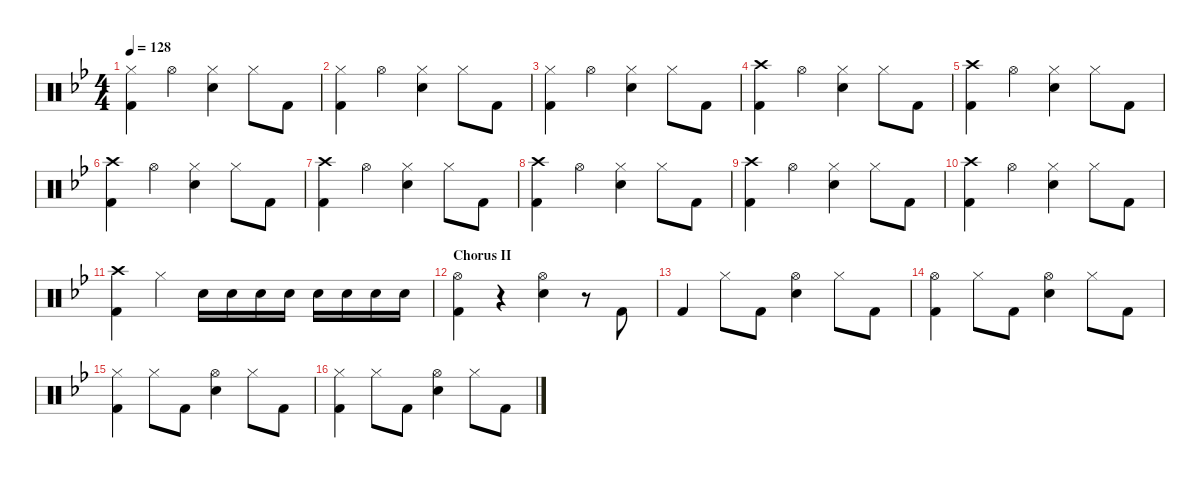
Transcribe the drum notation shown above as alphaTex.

\defaultSystemsLayout 4
\hideDynamics
\bracketExtendMode nobrackets
\singleTrackTrackNamePolicy hidden
\multiTrackTrackNamePolicy hidden
\firstSystemTrackNameMode fullname
\firstSystemTrackNameOrientation horizontal
\otherSystemsTrackNameOrientation horizontal
\track ("Drums" "drm.") {instrument percussion}
\staff {score}
\articulation defaults
\ts (4 4)
\tempo 128
\clef neutral
\ks bb
("Hi-Hat (closed)"{acc forcenatural} "Kick (hit) 2"{acc forcenatural}).4{dy f beam Down} "Hi-Hat (open)"{acc forcenatural}.4{beam Down} ("Hi-Hat (closed)"{acc forcenatural} "Snare (hit) 2"{acc forcenatural}).4{beam Down} "Hi-Hat (closed)"{acc forcenatural}.8{beam Down} "Kick (hit) 2"{acc forcenatural}.8{beam Down} |
("Hi-Hat (closed)"{acc forcenatural} "Kick (hit) 2"{acc forcenatural}).4{beam Down} "Hi-Hat (open)"{acc forcenatural}.4{beam Down} ("Hi-Hat (closed)"{acc forcenatural} "Snare (hit) 2"{acc forcenatural}).4{beam Down} "Hi-Hat (closed)"{acc forcenatural}.8{beam Down} "Kick (hit) 2"{acc forcenatural}.8{beam Down} |
("Hi-Hat (closed)"{acc forcenatural} "Kick (hit) 2"{acc forcenatural}).4{beam Down} "Hi-Hat (open)"{acc forcenatural}.4{beam Down} ("Hi-Hat (closed)"{acc forcenatural} "Snare (hit) 2"{acc forcenatural}).4{beam Down} "Hi-Hat (closed)"{acc forcenatural}.8{beam Down} "Kick (hit) 2"{acc forcenatural}.8{beam Down} |
("Crash high (hit)"{acc forcenatural} "Kick (hit) 2"{acc forcenatural}).4{beam Down} "Hi-Hat (open)"{acc forcenatural}.4{beam Down} ("Hi-Hat (closed)"{acc forcenatural} "Snare (hit) 2"{acc forcenatural}).4{beam Down} "Hi-Hat (closed)"{acc forcenatural}.8{beam Down} "Kick (hit) 2"{acc forcenatural}.8{beam Down} |
("Crash high (hit)"{acc forcenatural} "Kick (hit) 2"{acc forcenatural}).4{beam Down} "Hi-Hat (open)"{acc forcenatural}.4{beam Down} ("Hi-Hat (closed)"{acc forcenatural} "Snare (hit) 2"{acc forcenatural}).4{beam Down} "Hi-Hat (closed)"{acc forcenatural}.8{beam Down} "Kick (hit) 2"{acc forcenatural}.8{beam Down} |
("Crash high (hit)"{acc forcenatural} "Kick (hit) 2"{acc forcenatural}).4{beam Down} "Hi-Hat (open)"{acc forcenatural}.4{beam Down} ("Hi-Hat (closed)"{acc forcenatural} "Snare (hit) 2"{acc forcenatural}).4{beam Down} "Hi-Hat (closed)"{acc forcenatural}.8{beam Down} "Kick (hit) 2"{acc forcenatural}.8{beam Down} |
("Crash high (hit)"{acc forcenatural} "Kick (hit) 2"{acc forcenatural}).4{beam Down} "Hi-Hat (open)"{acc forcenatural}.4{beam Down} ("Hi-Hat (closed)"{acc forcenatural} "Snare (hit) 2"{acc forcenatural}).4{beam Down} "Hi-Hat (closed)"{acc forcenatural}.8{beam Down} "Kick (hit) 2"{acc forcenatural}.8{beam Down} |
("Crash high (hit)"{acc forcenatural} "Kick (hit) 2"{acc forcenatural}).4{beam Down} "Hi-Hat (open)"{acc forcenatural}.4{beam Down} ("Hi-Hat (closed)"{acc forcenatural} "Snare (hit) 2"{acc forcenatural}).4{beam Down} "Hi-Hat (closed)"{acc forcenatural}.8{beam Down} "Kick (hit) 2"{acc forcenatural}.8{beam Down} |
("Crash high (hit)"{acc forcenatural} "Kick (hit) 2"{acc forcenatural}).4{beam Down} "Hi-Hat (open)"{acc forcenatural}.4{beam Down} ("Hi-Hat (closed)"{acc forcenatural} "Snare (hit) 2"{acc forcenatural}).4{beam Down} "Hi-Hat (closed)"{acc forcenatural}.8{beam Down} "Kick (hit) 2"{acc forcenatural}.8{beam Down} |
("Crash high (hit)"{acc forcenatural} "Kick (hit) 2"{acc forcenatural}).4{beam Down} "Hi-Hat (open)"{acc forcenatural}.4{beam Down} ("Hi-Hat (closed)"{acc forcenatural} "Snare (hit) 2"{acc forcenatural}).4{beam Down} "Hi-Hat (closed)"{acc forcenatural}.8{beam Down} "Kick (hit) 2"{acc forcenatural}.8{beam Down} |
("Crash high (hit)"{acc forcenatural} "Kick (hit) 2"{acc forcenatural}).4{beam Down} "Hi-Hat (closed)"{acc forcenatural}.4{beam Down} "Snare (hit) 2"{acc forcenatural}.16{beam Down} "Snare (hit) 2"{acc forcenatural}.16{beam Down} "Snare (hit) 2"{acc forcenatural}.16{beam Down} "Snare (hit) 2"{acc forcenatural}.16{beam Down} "Snare (hit) 2"{acc forcenatural}.16{beam Down} "Snare (hit) 2"{acc forcenatural}.16{beam Down} "Snare (hit) 2"{acc forcenatural}.16{beam Down} "Snare (hit) 2"{acc forcenatural}.16{beam Down} |
\section ("" "Chorus II")
("Hi-Hat (open)"{acc forcenatural} "Kick (hit) 2"{acc forcenatural}).4{beam Down} r.4{beam Down} ("Hi-Hat (open)"{acc forcenatural} "Snare (hit) 2"{acc forcenatural}).4{beam Down} r.8{beam Down} "Kick (hit) 2"{acc forcenatural}.8{beam Up} |
"Kick (hit) 2"{acc forcenatural}.4{beam Up} "Hi-Hat (closed)"{acc forcenatural}.8{beam Down} "Kick (hit) 2"{acc forcenatural}.8{beam Down} ("Hi-Hat (open)"{acc forcenatural} "Snare (hit) 2"{acc forcenatural}).4{beam Down} "Hi-Hat (closed)"{acc forcenatural}.8{beam Down} "Kick (hit) 2"{acc forcenatural}.8{beam Down} |
("Hi-Hat (open)"{acc forcenatural} "Kick (hit) 2"{acc forcenatural}).4{beam Down} "Hi-Hat (closed)"{acc forcenatural}.8{beam Down} "Kick (hit) 2"{acc forcenatural}.8{beam Down} ("Hi-Hat (open)"{acc forcenatural} "Snare (hit) 2"{acc forcenatural}).4{beam Down} "Hi-Hat (closed)"{acc forcenatural}.8{beam Down} "Kick (hit) 2"{acc forcenatural}.8{beam Down} |
("Hi-Hat (closed)"{acc forcenatural} "Kick (hit) 2"{acc forcenatural}).4{beam Down} "Hi-Hat (closed)"{acc forcenatural}.8{beam Down} "Kick (hit) 2"{acc forcenatural}.8{beam Down} ("Hi-Hat (open)"{acc forcenatural} "Snare (hit) 2"{acc forcenatural}).4{beam Down} "Hi-Hat (closed)"{acc forcenatural}.8{beam Down} "Kick (hit) 2"{acc forcenatural}.8{beam Down} |
("Hi-Hat (closed)"{acc forcenatural} "Kick (hit) 2"{acc forcenatural}).4{beam Down} "Hi-Hat (closed)"{acc forcenatural}.8{beam Down} "Kick (hit) 2"{acc forcenatural}.8{beam Down} ("Hi-Hat (open)"{acc forcenatural} "Snare (hit) 2"{acc forcenatural}).4{beam Down} "Hi-Hat (closed)"{acc forcenatural}.8{beam Down} "Kick (hit) 2"{acc forcenatural}.8{beam Down}
